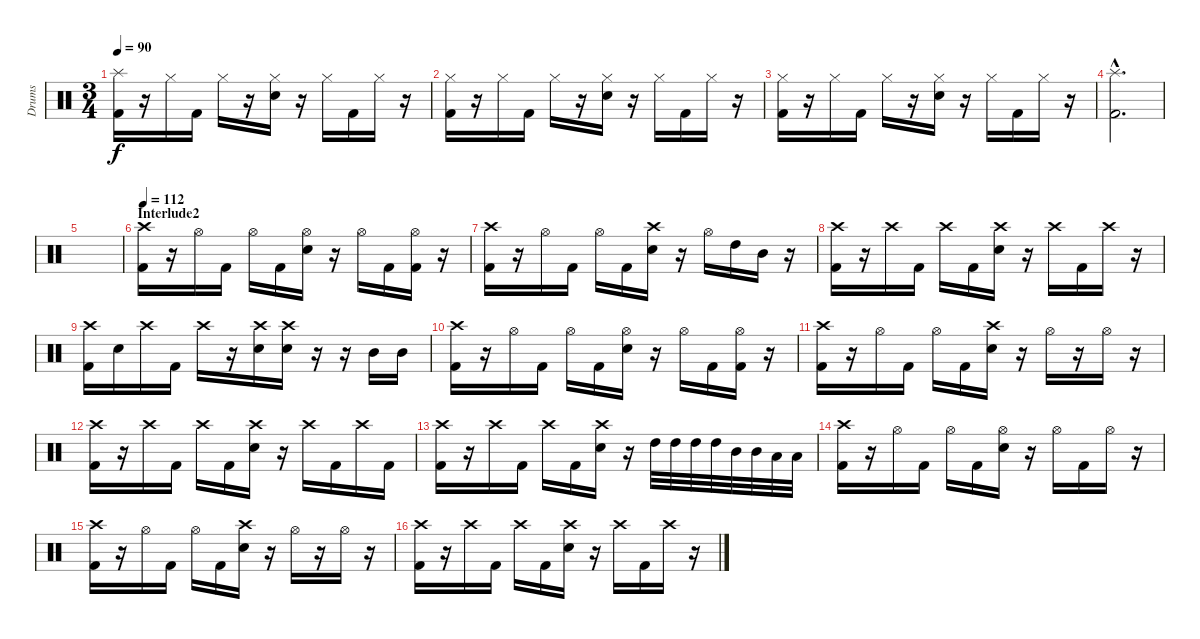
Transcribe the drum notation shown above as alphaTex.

\track ("Drums" "Drums") {instrument percussion}
\staff {score}
\articulation defaults
\ts (3 4)
\tempo 90
\clef neutral
\ks c
("Splash (hit)" "Kick (hit) 2").16{dy f} r.16 "Hi-Hat (closed)".16 "Kick (hit) 2".16 "Hi-Hat (closed)".16 r.16 ("Hi-Hat (closed)" "Snare (hit) 2").16 r.16 "Hi-Hat (closed)".16 "Kick (hit) 2".16 "Hi-Hat (closed)".16 r.16 |
("Hi-Hat (closed)" "Kick (hit) 2").16 r.16 "Hi-Hat (closed)".16 "Kick (hit) 2".16 "Hi-Hat (closed)".16 r.16 ("Hi-Hat (closed)" "Snare (hit) 2").16 r.16 "Hi-Hat (closed)".16 "Kick (hit) 2".16 "Hi-Hat (closed)".16 r.16 |
("Hi-Hat (closed)" "Kick (hit) 2").16 r.16 "Hi-Hat (closed)".16 "Kick (hit) 2".16 "Hi-Hat (closed)".16 r.16 ("Hi-Hat (closed)" "Snare (hit) 2").16 r.16 "Hi-Hat (closed)".16 "Kick (hit) 2".16 "Hi-Hat (closed)".16 r.16 |
("Splash (hit)"{hac} "Kick (hit) 2"{hac}).2{d} |
|
\section ("" "Interlude2")
\tempo 112
("Crash high (hit)" "Kick (hit) 2").16 r.16 "Hi-Hat (open)".16 "Kick (hit) 2".16 "Hi-Hat (open)".16 "Kick (hit) 2".16 ("Hi-Hat (open)" "Electric Snare (hit)").16 r.16 "Hi-Hat (open)".16 "Kick (hit) 2".16 ("Hi-Hat (open)" "Kick (hit) 2").16 r.16 |
("Crash high (hit)" "Kick (hit) 2").16 r.16 "Hi-Hat (open)".16 "Kick (hit) 2".16 "Hi-Hat (open)".16 "Kick (hit) 2".16 ("Crash high (hit)" "Electric Snare (hit)").16 r.16 "Hi-Hat (open)".16 "High Tom (hit)".16 "Mid Tom (hit)".16 r.16 |
("Crash high (hit)" "Kick (hit) 2").16 r.16 "Crash high (hit)".16 "Kick (hit) 2".16 "Crash high (hit)".16 "Kick (hit) 2".16 ("Crash high (hit)" "Electric Snare (hit)").16 r.16 "Crash high (hit)".16 "Kick (hit) 2".16 "Crash high (hit)".16 r.16 |
("Crash high (hit)" "Kick (hit) 2").16 "Electric Snare (hit)".16 "Crash high (hit)".16 "Kick (hit) 2".16 "Crash high (hit)".16 r.16 ("Crash high (hit)" "Electric Snare (hit)").16 ("Crash high (hit)" "Electric Snare (hit)").16 r.16 r.16 "Mid Tom (hit)".16 "Mid Tom (hit)".16 |
("Crash high (hit)" "Kick (hit) 2").16 r.16 "Hi-Hat (open)".16 "Kick (hit) 2".16 "Hi-Hat (open)".16 "Kick (hit) 2".16 ("Hi-Hat (open)" "Electric Snare (hit)").16 r.16 "Hi-Hat (open)".16 "Kick (hit) 2".16 ("Hi-Hat (open)" "Kick (hit) 2").16 r.16 |
("Crash high (hit)" "Kick (hit) 2").16 r.16 "Hi-Hat (open)".16 "Kick (hit) 2".16 "Hi-Hat (open)".16 "Kick (hit) 2".16 ("Crash high (hit)" "Electric Snare (hit)").16 r.16 "Hi-Hat (open)".16 r.16 "Hi-Hat (open)".16 r.16 |
("Crash high (hit)" "Kick (hit) 2").16 r.16 "Crash high (hit)".16 "Kick (hit) 2".16 "Crash high (hit)".16 "Kick (hit) 2".16 ("Crash high (hit)" "Electric Snare (hit)").16 r.16 "Crash high (hit)".16 "Kick (hit) 2".16 "Crash high (hit)".16 "Kick (hit) 2".16 |
("Crash high (hit)" "Kick (hit) 2").16 r.16 "Crash high (hit)".16 "Kick (hit) 2".16 "Crash high (hit)".16 "Kick (hit) 2".16 ("Crash high (hit)" "Electric Snare (hit)").16 r.16 "High Tom (hit)".32 "High Tom (hit)".32 "High Tom (hit)".32 "High Tom (hit)".32 "Mid Tom (hit)".32 "Mid Tom (hit)".32 "Low Tom (hit)".32 "Low Tom (hit)".32 |
("Crash high (hit)" "Kick (hit) 2").16 r.16 "Hi-Hat (open)".16 "Kick (hit) 2".16 "Hi-Hat (open)".16 "Kick (hit) 2".16 ("Hi-Hat (open)" "Electric Snare (hit)").16 r.16 "Hi-Hat (open)".16 "Kick (hit) 2".16 "Hi-Hat (open)".16 r.16 |
("Crash high (hit)" "Kick (hit) 2").16 r.16 "Hi-Hat (open)".16 "Kick (hit) 2".16 "Hi-Hat (open)".16 "Kick (hit) 2".16 ("Crash high (hit)" "Electric Snare (hit)").16 r.16 "Hi-Hat (open)".16 r.16 "Hi-Hat (open)".16 r.16 |
("Crash high (hit)" "Kick (hit) 2").16 r.16 "Crash high (hit)".16 "Kick (hit) 2".16 "Crash high (hit)".16 "Kick (hit) 2".16 ("Crash high (hit)" "Electric Snare (hit)").16 r.16 "Crash high (hit)".16 "Kick (hit) 2".16 "Crash high (hit)".16 r.16
